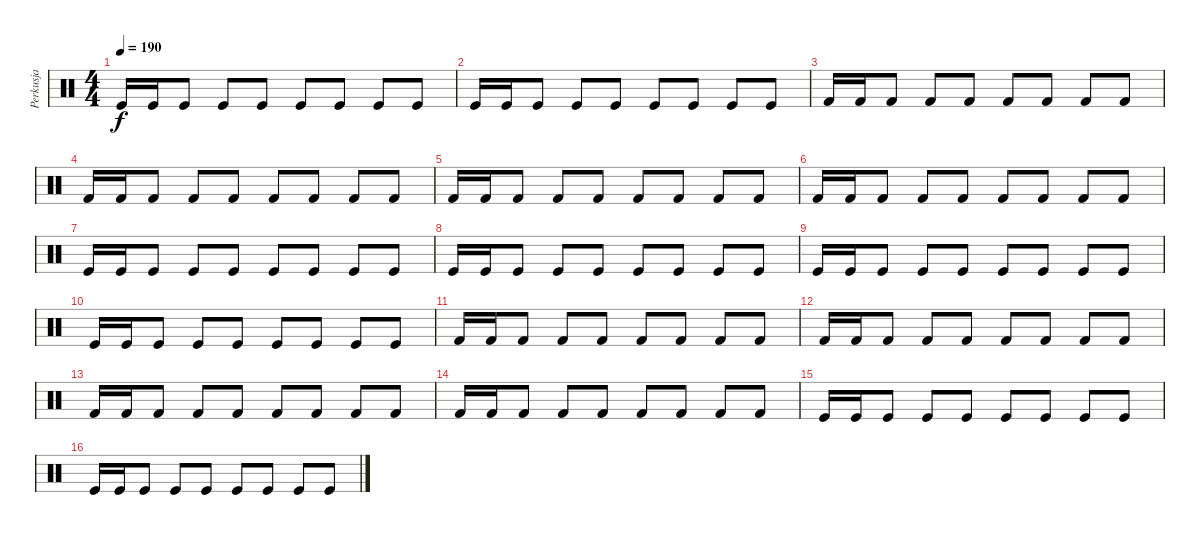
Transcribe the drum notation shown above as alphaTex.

\track ("Perkusja" "Perkusja") {instrument percussion}
\staff {score}
\articulation defaults
\ts (4 4)
\tempo 190
\clef neutral
\ks c "Kick (hit)".16{dy f} "Kick (hit)".16 "Kick (hit)".8 "Kick (hit)".8 "Kick (hit)".8 "Kick (hit)".8 "Kick (hit)".8 "Kick (hit)".8 "Kick (hit)".8
|
"Kick (hit)".16 "Kick (hit)".16 "Kick (hit)".8 "Kick (hit)".8 "Kick (hit)".8 "Kick (hit)".8 "Kick (hit)".8 "Kick (hit)".8 "Kick (hit)".8 |
"Kick (hit) 2".16 "Kick (hit) 2".16 "Kick (hit) 2".8 "Kick (hit) 2".8 "Kick (hit) 2".8 "Kick (hit) 2".8 "Kick (hit) 2".8 "Kick (hit) 2".8 "Kick (hit) 2".8 |
"Kick (hit) 2".16 "Kick (hit) 2".16 "Kick (hit) 2".8 "Kick (hit) 2".8 "Kick (hit) 2".8 "Kick (hit) 2".8 "Kick (hit) 2".8 "Kick (hit) 2".8 "Kick (hit) 2".8 |
"Kick (hit) 2".16 "Kick (hit) 2".16 "Kick (hit) 2".8 "Kick (hit) 2".8 "Kick (hit) 2".8 "Kick (hit) 2".8 "Kick (hit) 2".8 "Kick (hit) 2".8 "Kick (hit) 2".8 |
"Kick (hit) 2".16 "Kick (hit) 2".16 "Kick (hit) 2".8 "Kick (hit) 2".8 "Kick (hit) 2".8 "Kick (hit) 2".8 "Kick (hit) 2".8 "Kick (hit) 2".8 "Kick (hit) 2".8 |
"Kick (hit)".16 "Kick (hit)".16 "Kick (hit)".8 "Kick (hit)".8 "Kick (hit)".8 "Kick (hit)".8 "Kick (hit)".8 "Kick (hit)".8 "Kick (hit)".8 |
"Kick (hit)".16 "Kick (hit)".16 "Kick (hit)".8 "Kick (hit)".8 "Kick (hit)".8 "Kick (hit)".8 "Kick (hit)".8 "Kick (hit)".8 "Kick (hit)".8 |
"Kick (hit)".16{volume 12} "Kick (hit)".16 "Kick (hit)".8 "Kick (hit)".8 "Kick (hit)".8 "Kick (hit)".8 "Kick (hit)".8 "Kick (hit)".8 "Kick (hit)".8 |
"Kick (hit)".16 "Kick (hit)".16 "Kick (hit)".8 "Kick (hit)".8 "Kick (hit)".8 "Kick (hit)".8 "Kick (hit)".8 "Kick (hit)".8 "Kick (hit)".8 |
"Kick (hit) 2".16 "Kick (hit) 2".16 "Kick (hit) 2".8 "Kick (hit) 2".8 "Kick (hit) 2".8 "Kick (hit) 2".8 "Kick (hit) 2".8 "Kick (hit) 2".8 "Kick (hit) 2".8 |
"Kick (hit) 2".16 "Kick (hit) 2".16 "Kick (hit) 2".8 "Kick (hit) 2".8 "Kick (hit) 2".8 "Kick (hit) 2".8 "Kick (hit) 2".8 "Kick (hit) 2".8 "Kick (hit) 2".8 |
"Kick (hit) 2".16 "Kick (hit) 2".16 "Kick (hit) 2".8 "Kick (hit) 2".8 "Kick (hit) 2".8 "Kick (hit) 2".8 "Kick (hit) 2".8 "Kick (hit) 2".8 "Kick (hit) 2".8 |
"Kick (hit) 2".16 "Kick (hit) 2".16 "Kick (hit) 2".8 "Kick (hit) 2".8 "Kick (hit) 2".8 "Kick (hit) 2".8 "Kick (hit) 2".8 "Kick (hit) 2".8 "Kick (hit) 2".8 |
"Kick (hit)".16 "Kick (hit)".16 "Kick (hit)".8 "Kick (hit)".8 "Kick (hit)".8 "Kick (hit)".8 "Kick (hit)".8 "Kick (hit)".8 "Kick (hit)".8 |
"Kick (hit)".16 "Kick (hit)".16 "Kick (hit)".8 "Kick (hit)".8 "Kick (hit)".8 "Kick (hit)".8 "Kick (hit)".8 "Kick (hit)".8 "Kick (hit)".8
